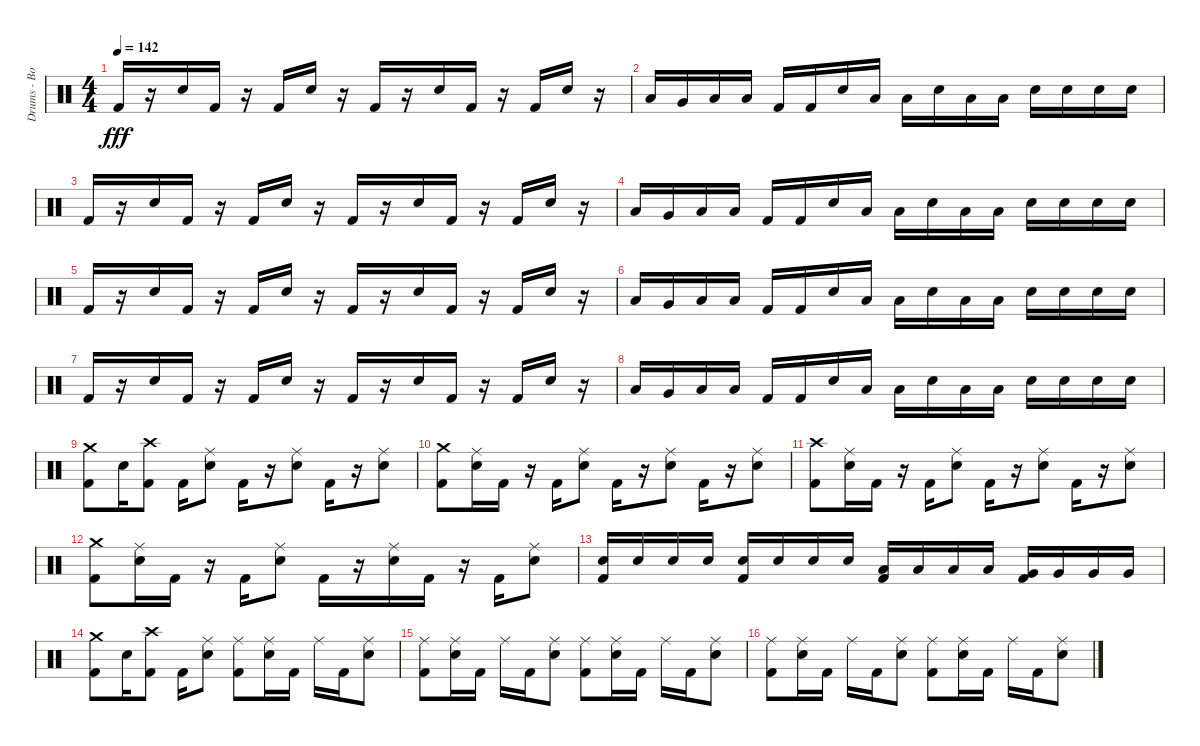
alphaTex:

\track ("Drums - Bobby Schayer" "Drums - Bo") {instrument percussion}
\staff {score}
\articulation defaults
\ts (4 4)
\tempo 142
\clef neutral
\ks c "Kick (hit) 2".16{dy fff}
r.16 "Electric Snare (hit)".16 "Kick (hit) 2".16 r.16 "Kick (hit) 2".16 "Electric Snare (hit)".16 r.16 "Kick (hit) 2".16 r.16 "Electric Snare (hit)".16 "Kick (hit) 2".16 r.16 "Kick (hit) 2".16 "Electric Snare (hit)".16 r.16 |
"Low Tom (hit)".16 "Very Low Tom (hit)".16 "Low Floor Tom (hit)".16 "Low Floor Tom (hit)".16 "Kick (hit) 2".16 "Kick (hit) 2".16 "Electric Snare (hit)".16 "Low Floor Tom (hit)".16 "Low Floor Tom (hit)".16 "Electric Snare (hit)".16 "Low Tom (hit)".16 "Low Floor Tom (hit)".16 "Electric Snare (hit)".16 "Electric Snare (hit)".16 "Electric Snare (hit)".16 "Electric Snare (hit)".16 |
"Kick (hit) 2".16 r.16 "Electric Snare (hit)".16 "Kick (hit) 2".16 r.16 "Kick (hit) 2".16 "Electric Snare (hit)".16 r.16 "Kick (hit) 2".16 r.16 "Electric Snare (hit)".16 "Kick (hit) 2".16 r.16 "Kick (hit) 2".16 "Electric Snare (hit)".16 r.16 |
"Low Tom (hit)".16 "Very Low Tom (hit)".16 "Low Floor Tom (hit)".16 "Low Floor Tom (hit)".16 "Kick (hit) 2".16 "Kick (hit) 2".16 "Electric Snare (hit)".16 "Low Floor Tom (hit)".16 "Low Floor Tom (hit)".16 "Electric Snare (hit)".16 "Low Tom (hit)".16 "Low Floor Tom (hit)".16 "Electric Snare (hit)".16 "Electric Snare (hit)".16 "Electric Snare (hit)".16 "Electric Snare (hit)".16 |
"Kick (hit) 2".16 r.16 "Electric Snare (hit)".16 "Kick (hit) 2".16 r.16 "Kick (hit) 2".16 "Electric Snare (hit)".16 r.16 "Kick (hit) 2".16 r.16 "Electric Snare (hit)".16 "Kick (hit) 2".16 r.16 "Kick (hit) 2".16 "Electric Snare (hit)".16 r.16 |
"Low Tom (hit)".16 "Very Low Tom (hit)".16 "Low Floor Tom (hit)".16 "Low Floor Tom (hit)".16 "Kick (hit) 2".16 "Kick (hit) 2".16 "Electric Snare (hit)".16 "Low Floor Tom (hit)".16 "Low Floor Tom (hit)".16 "Electric Snare (hit)".16 "Low Tom (hit)".16 "Low Floor Tom (hit)".16 "Electric Snare (hit)".16 "Electric Snare (hit)".16 "Electric Snare (hit)".16 "Electric Snare (hit)".16 |
"Kick (hit) 2".16 r.16 "Electric Snare (hit)".16 "Kick (hit) 2".16 r.16 "Kick (hit) 2".16 "Electric Snare (hit)".16 r.16 "Kick (hit) 2".16 r.16 "Electric Snare (hit)".16 "Kick (hit) 2".16 r.16 "Kick (hit) 2".16 "Electric Snare (hit)".16 r.16 |
"Low Tom (hit)".16 "Very Low Tom (hit)".16 "Low Floor Tom (hit)".16 "Low Floor Tom (hit)".16 "Kick (hit) 2".16 "Kick (hit) 2".16 "Electric Snare (hit)".16 "Low Floor Tom (hit)".16 "Low Floor Tom (hit)".16 "Electric Snare (hit)".16 "Low Tom (hit)".16 "Low Floor Tom (hit)".16 "Electric Snare (hit)".16 "Electric Snare (hit)".16 "Electric Snare (hit)".16 "Electric Snare (hit)".16 |
("Kick (hit) 2" "Crash medium (hit)").8 "Electric Snare (hit)".16 ("Kick (hit) 2" "Crash high (hit)").8 "Kick (hit) 2".16 ("Electric Snare (hit)" "Ride (middle)").8 "Kick (hit) 2".16 r.16 ("Electric Snare (hit)" "Ride (middle)").8 "Kick (hit) 2".16 r.16 ("Electric Snare (hit)" "Ride (middle)").8 |
("Kick (hit) 2" "Crash medium (hit)").8 ("Electric Snare (hit)" "Ride (middle)").16 "Kick (hit) 2".16 r.16 "Kick (hit) 2".16 ("Electric Snare (hit)" "Ride (middle)").8 "Kick (hit) 2".16 r.16 ("Electric Snare (hit)" "Ride (middle)").8 "Kick (hit) 2".16 r.16 ("Electric Snare (hit)" "Ride (middle)").8 |
("Kick (hit) 2" "Crash high (hit)").8 ("Electric Snare (hit)" "Ride (middle)").16 "Kick (hit) 2".16 r.16 "Kick (hit) 2".16 ("Electric Snare (hit)" "Ride (middle)").8 "Kick (hit) 2".16 r.16 ("Electric Snare (hit)" "Ride (middle)").8 "Kick (hit) 2".16 r.16 ("Electric Snare (hit)" "Ride (middle)").8 |
("Kick (hit) 2" "Crash medium (hit)").8 ("Electric Snare (hit)" "Ride (middle)").16 "Kick (hit) 2".16 r.16 "Kick (hit) 2".16 ("Electric Snare (hit)" "Ride (middle)").8 "Kick (hit) 2".16 r.16 ("Electric Snare (hit)" "Ride (middle)").16 "Kick (hit) 2".16 r.16 "Kick (hit) 2".16 ("Electric Snare (hit)" "Ride (middle)").8 |
("Electric Snare (hit)" "Kick (hit) 2").16 "Electric Snare (hit)".16 "Electric Snare (hit)".16 "Electric Snare (hit)".16 ("Electric Snare (hit)" "Kick (hit) 2").16 "Electric Snare (hit)".16 "Electric Snare (hit)".16 "Electric Snare (hit)".16 ("Low Tom (hit)" "Kick (hit) 2").16 "Low Tom (hit)".16 "Low Tom (hit)".16 "Low Tom (hit)".16 ("Very Low Tom (hit)" "Kick (hit) 2").16 "Very Low Tom (hit)".16 "Very Low Tom (hit)".16 "Very Low Tom (hit)".16 |
("Kick (hit) 2" "Crash medium (hit)").8 "Electric Snare (hit)".16 ("Kick (hit) 2" "Crash high (hit)").8 "Kick (hit) 2".16 ("Electric Snare (hit)" "Ride (middle)").8 ("Kick (hit) 2" "Ride (middle)").8 ("Electric Snare (hit)" "Ride (middle)").16 "Kick (hit) 2".16 "Ride (middle)".16 "Kick (hit) 2".16 ("Electric Snare (hit)" "Ride (middle)").8 |
("Kick (hit) 2" "Ride (middle)").8 ("Electric Snare (hit)" "Ride (middle)").16 "Kick (hit) 2".16 "Ride (middle)".16 "Kick (hit) 2".16 ("Electric Snare (hit)" "Ride (middle)").8 ("Kick (hit) 2" "Ride (middle)").8 ("Electric Snare (hit)" "Ride (middle)").16 "Kick (hit) 2".16 "Ride (middle)".16 "Kick (hit) 2".16 ("Electric Snare (hit)" "Ride (middle)").8 |
("Kick (hit) 2" "Ride (middle)").8 ("Electric Snare (hit)" "Ride (middle)").16 "Kick (hit) 2".16 "Ride (middle)".16 "Kick (hit) 2".16 ("Electric Snare (hit)" "Ride (middle)").8 ("Kick (hit) 2" "Ride (middle)").8 ("Electric Snare (hit)" "Ride (middle)").16 "Kick (hit) 2".16 "Ride (middle)".16 "Kick (hit) 2".16 ("Electric Snare (hit)" "Ride (middle)").8
